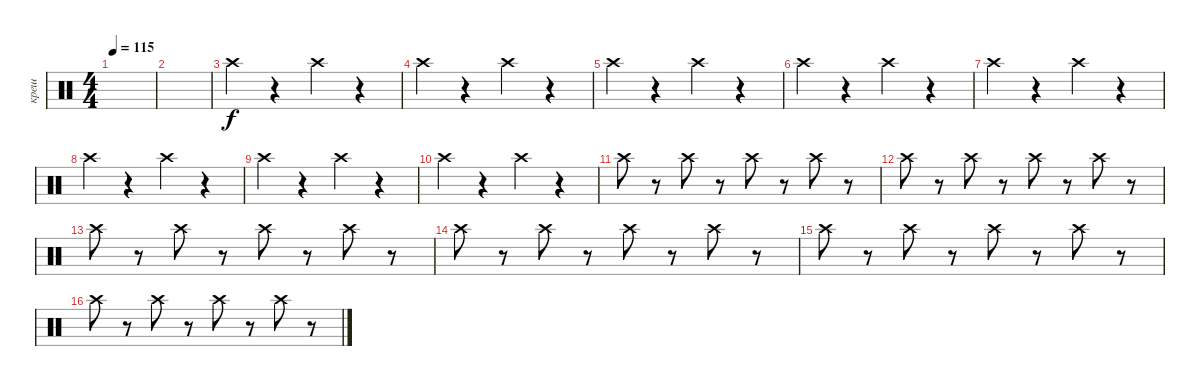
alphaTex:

\track ("креш" "креш") {mute instrument percussion}
\staff {score}
\articulation defaults
\ts (4 4)
\tempo 115
\clef neutral
\ks c
|
|
"Crash high (hit)".4 r.4 "Crash high (hit)".4 r.4 |
"Crash high (hit)".4 r.4 "Crash high (hit)".4 r.4 |
"Crash high (hit)".4 r.4 "Crash high (hit)".4 r.4 |
"Crash high (hit)".4 r.4 "Crash high (hit)".4 r.4 |
"Crash high (hit)".4 r.4 "Crash high (hit)".4 r.4 |
"Crash high (hit)".4 r.4 "Crash high (hit)".4 r.4 |
"Crash high (hit)".4 r.4 "Crash high (hit)".4 r.4 |
"Crash high (hit)".4 r.4 "Crash high (hit)".4 r.4 |
"Crash high (hit)".8 r.8 "Crash high (hit)".8 r.8 "Crash high (hit)".8 r.8 "Crash high (hit)".8 r.8 |
"Crash high (hit)".8 r.8 "Crash high (hit)".8 r.8 "Crash high (hit)".8 r.8 "Crash high (hit)".8 r.8 |
"Crash high (hit)".8 r.8 "Crash high (hit)".8 r.8 "Crash high (hit)".8 r.8 "Crash high (hit)".8 r.8 |
"Crash high (hit)".8 r.8 "Crash high (hit)".8 r.8 "Crash high (hit)".8 r.8 "Crash high (hit)".8 r.8 |
"Crash high (hit)".8 r.8 "Crash high (hit)".8 r.8 "Crash high (hit)".8 r.8 "Crash high (hit)".8 r.8 |
"Crash high (hit)".8 r.8 "Crash high (hit)".8 r.8 "Crash high (hit)".8 r.8 "Crash high (hit)".8 r.8
